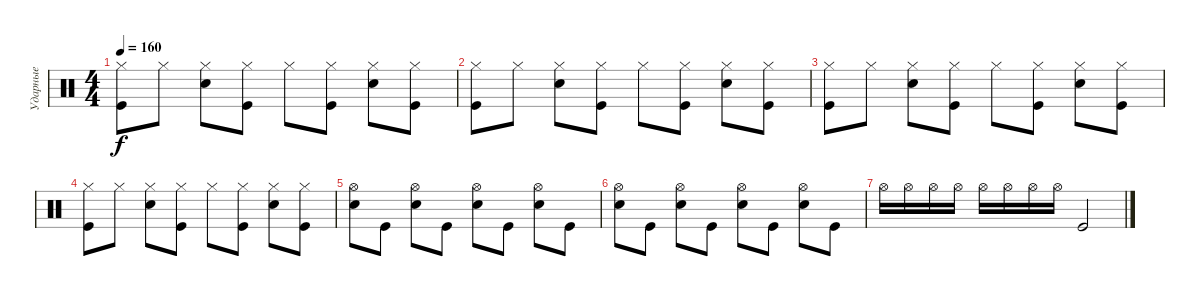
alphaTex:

\track ("Ударные" "Ударные") {instrument percussion}
\staff {score}
\articulation defaults
\ts (4 4)
\tempo 160
\clef neutral
\ks aminor
("Hi-Hat (closed)" "Kick (hit)").8{dy f} "Hi-Hat (closed)".8 ("Hi-Hat (closed)" "Snare (hit) 2").8 ("Hi-Hat (closed)" "Kick (hit)").8 "Hi-Hat (closed)".8 ("Hi-Hat (closed)" "Kick (hit)").8 ("Hi-Hat (closed)" "Snare (hit) 2").8 ("Hi-Hat (closed)" "Kick (hit)").8 |
("Hi-Hat (closed)" "Kick (hit)").8 "Hi-Hat (closed)".8 ("Hi-Hat (closed)" "Snare (hit) 2").8 ("Hi-Hat (closed)" "Kick (hit)").8 "Hi-Hat (closed)".8 ("Hi-Hat (closed)" "Kick (hit)").8 ("Hi-Hat (closed)" "Snare (hit) 2").8 ("Hi-Hat (closed)" "Kick (hit)").8 |
("Hi-Hat (closed)" "Kick (hit)").8 "Hi-Hat (closed)".8 ("Hi-Hat (closed)" "Snare (hit) 2").8 ("Hi-Hat (closed)" "Kick (hit)").8 "Hi-Hat (closed)".8 ("Hi-Hat (closed)" "Kick (hit)").8 ("Hi-Hat (closed)" "Snare (hit) 2").8 ("Hi-Hat (closed)" "Kick (hit)").8 |
("Hi-Hat (closed)" "Kick (hit)").8 "Hi-Hat (closed)".8 ("Hi-Hat (closed)" "Snare (hit) 2").8 ("Hi-Hat (closed)" "Kick (hit)").8 "Hi-Hat (closed)".8 ("Hi-Hat (closed)" "Kick (hit)").8 ("Hi-Hat (closed)" "Snare (hit) 2").8 ("Hi-Hat (closed)" "Kick (hit)").8 |
("Snare (hit) 2" "Hi-Hat (open)").8 "Kick (hit)".8 ("Snare (hit) 2" "Hi-Hat (open)").8 "Kick (hit)".8 ("Snare (hit) 2" "Hi-Hat (open)").8 "Kick (hit)".8 ("Snare (hit) 2" "Hi-Hat (open)").8 "Kick (hit)".8 |
("Snare (hit) 2" "Hi-Hat (open)").8 "Kick (hit)".8 ("Snare (hit) 2" "Hi-Hat (open)").8 "Kick (hit)".8 ("Snare (hit) 2" "Hi-Hat (open)").8 "Kick (hit)".8 ("Snare (hit) 2" "Hi-Hat (open)").8 "Kick (hit)".8 |
"Hi-Hat (open)".16 "Hi-Hat (open)".16 "Hi-Hat (open)".16 "Hi-Hat (open)".16 "Hi-Hat (open)".16 "Hi-Hat (open)".16 "Hi-Hat (open)".16 "Hi-Hat (open)".16 "Kick (hit)".2
